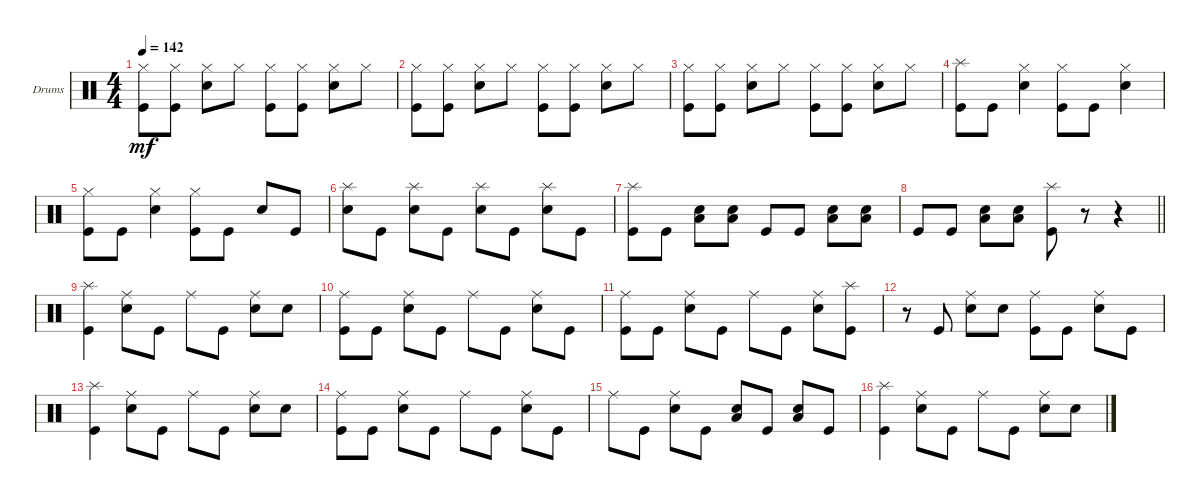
\defaultSystemsLayout 4
\bracketExtendMode groupsimilarinstruments
\firstSystemTrackNameOrientation horizontal
\otherSystemsTrackNameOrientation horizontal
\track ("Drums" "Drums") {instrument percussion}
\staff {score}
\articulation defaults
\ts (4 4)
\tempo 142
\clef neutral
\ks c
("Kick (hit)" "Hi-Hat (closed)").8{dy mf} ("Kick (hit)" "Hi-Hat (closed)").8 ("Snare (hit) 2" "Hi-Hat (closed)").8 "Hi-Hat (closed)".8 ("Kick (hit)" "Hi-Hat (closed)").8 ("Kick (hit)" "Hi-Hat (closed)").8 ("Snare (hit) 2" "Hi-Hat (closed)").8 "Hi-Hat (closed)".8 |
("Kick (hit)" "Hi-Hat (closed)").8 ("Kick (hit)" "Hi-Hat (closed)").8 ("Snare (hit) 2" "Hi-Hat (closed)").8 "Hi-Hat (closed)".8 ("Kick (hit)" "Hi-Hat (closed)").8 ("Kick (hit)" "Hi-Hat (closed)").8 ("Snare (hit) 2" "Hi-Hat (closed)").8 "Hi-Hat (closed)".8 |
("Kick (hit)" "Hi-Hat (closed)").8 ("Kick (hit)" "Hi-Hat (closed)").8 ("Snare (hit) 2" "Hi-Hat (closed)").8 "Hi-Hat (closed)".8 ("Kick (hit)" "Hi-Hat (closed)").8 ("Kick (hit)" "Hi-Hat (closed)").8 ("Snare (hit) 2" "Hi-Hat (closed)").8 "Hi-Hat (closed)".8 |
("Splash (hit)" "Kick (hit)").8 "Kick (hit)".8 ("Snare (hit) 2" "Hi-Hat (closed)").4 ("Hi-Hat (closed)" "Kick (hit)").8 "Kick (hit)".8 ("Snare (hit) 2" "Hi-Hat (closed)").4 |
("Kick (hit)" "Hi-Hat (closed)").8 "Kick (hit)".8 ("Snare (hit) 2" "Hi-Hat (closed)").4 ("Hi-Hat (closed)" "Kick (hit)").8 "Kick (hit)".8 "Snare (hit) 2".8 "Kick (hit)".8 |
("Snare (hit) 2" "Splash (hit)").8 "Kick (hit)".8 ("Snare (hit) 2" "Splash (hit)").8 "Kick (hit)".8 ("Snare (hit) 2" "Splash (hit)").8 "Kick (hit)".8 ("Snare (hit) 2" "Splash (hit)").8 "Kick (hit)".8 |
("Splash (hit)" "Kick (hit)").8 "Kick (hit)".8 ("Low Tom (hit)" "Snare (hit) 2").8 ("Low Tom (hit)" "Snare (hit) 2").8 "Kick (hit)".8 "Kick (hit)".8 ("Low Tom (hit)" "Snare (hit) 2").8 ("Low Tom (hit)" "Snare (hit) 2").8 |
\barLineRight lightlight "Kick (hit)".8 "Kick (hit)".8
("Low Tom (hit)" "Snare (hit) 2").8 ("Low Tom (hit)" "Snare (hit) 2").8 ("Kick (hit)" "Splash (hit)").8 r.8 r.4 |
("Splash (hit)" "Kick (hit)").4 ("Snare (hit) 2" "Ride (middle)").8 "Kick (hit)".8 "Ride (middle)".8 "Kick (hit)".8 ("Snare (hit) 2" "Ride (middle)").8 "Snare (hit) 2".8 |
("Ride (middle)" "Kick (hit)").8 "Kick (hit)".8 ("Snare (hit) 2" "Ride (middle)").8 "Kick (hit)".8 "Ride (middle)".8 "Kick (hit)".8 ("Snare (hit) 2" "Ride (middle)").8 "Kick (hit)".8 |
("Ride (middle)" "Kick (hit)").8 "Kick (hit)".8 ("Snare (hit) 2" "Ride (middle)").8 "Kick (hit)".8 "Ride (middle)".8 "Kick (hit)".8 ("Snare (hit) 2" "Ride (middle)").8 ("Kick (hit)" "Splash (hit)").8 |
r.8 "Kick (hit)".8 ("Snare (hit) 2" "Ride (middle)").8 "Snare (hit) 2".8 ("Kick (hit)" "Ride (middle)").8 "Kick (hit)".8 ("Snare (hit) 2" "Ride (middle)").8 "Kick (hit)".8 |
("Splash (hit)" "Kick (hit)").4 ("Snare (hit) 2" "Ride (middle)").8 "Kick (hit)".8 "Ride (middle)".8 "Kick (hit)".8 ("Snare (hit) 2" "Ride (middle)").8 "Snare (hit) 2".8 |
("Ride (middle)" "Kick (hit)").8 "Kick (hit)".8 ("Snare (hit) 2" "Ride (middle)").8 "Kick (hit)".8 "Ride (middle)".8 "Kick (hit)".8 ("Snare (hit) 2" "Ride (middle)").8 "Kick (hit)".8 |
"Ride (middle)".8 "Kick (hit)".8 ("Snare (hit) 2" "Ride (middle)").8 "Kick (hit)".8 ("Low Tom (hit)" "Snare (hit) 2").8 "Kick (hit)".8 ("Low Tom (hit)" "Snare (hit) 2").8 "Kick (hit)".8 |
("Splash (hit)" "Kick (hit)").4 ("Snare (hit) 2" "Ride (middle)").8 "Kick (hit)".8 "Ride (middle)".8 "Kick (hit)".8 ("Snare (hit) 2" "Ride (middle)").8 "Snare (hit) 2".8
